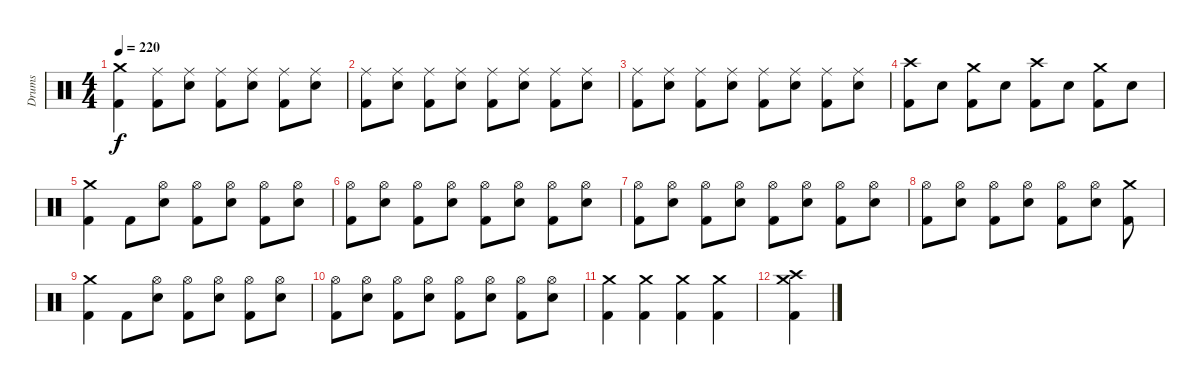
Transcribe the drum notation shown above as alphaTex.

\track ("Drums" "Drums") {instrument percussion}
\staff {score}
\articulation defaults
\ts (4 4)
\tempo 220
\clef neutral
\ks c
("Crash medium (hit)" "Kick (hit) 2").4{dy f} ("Ride (middle)" "Kick (hit) 2").8 ("Ride (middle)" "Snare (hit) 2").8 ("Ride (middle)" "Kick (hit) 2").8 ("Ride (middle)" "Snare (hit) 2").8 ("Ride (middle)" "Kick (hit) 2").8 ("Ride (middle)" "Snare (hit) 2").8 |
("Ride (middle)" "Kick (hit) 2").8 ("Ride (middle)" "Snare (hit) 2").8 ("Ride (middle)" "Kick (hit) 2").8 ("Ride (middle)" "Snare (hit) 2").8 ("Ride (middle)" "Kick (hit) 2").8 ("Ride (middle)" "Snare (hit) 2").8 ("Ride (middle)" "Kick (hit) 2").8 ("Ride (middle)" "Snare (hit) 2").8 |
("Ride (middle)" "Kick (hit) 2").8 ("Ride (middle)" "Snare (hit) 2").8 ("Ride (middle)" "Kick (hit) 2").8 ("Ride (middle)" "Snare (hit) 2").8 ("Ride (middle)" "Kick (hit) 2").8 ("Ride (middle)" "Snare (hit) 2").8 ("Ride (middle)" "Kick (hit) 2").8 ("Ride (middle)" "Snare (hit) 2").8 |
("Crash high (hit)" "Kick (hit) 2").8 "Snare (hit) 2".8 ("Crash medium (hit)" "Kick (hit) 2").8 "Snare (hit) 2".8 ("Crash high (hit)" "Kick (hit) 2").8 "Snare (hit) 2".8 ("Crash medium (hit)" "Kick (hit) 2").8 "Snare (hit) 2".8 |
("Crash medium (hit)" "Kick (hit) 2").4 "Kick (hit) 2".8 ("Hi-Hat (open)" "Snare (hit) 2").8 ("Hi-Hat (open)" "Kick (hit) 2").8 ("Hi-Hat (open)" "Snare (hit) 2").8 ("Hi-Hat (open)" "Kick (hit) 2").8 ("Hi-Hat (open)" "Snare (hit) 2").8 |
("Hi-Hat (open)" "Kick (hit) 2").8 ("Hi-Hat (open)" "Snare (hit) 2").8 ("Hi-Hat (open)" "Kick (hit) 2").8 ("Hi-Hat (open)" "Snare (hit) 2").8 ("Hi-Hat (open)" "Kick (hit) 2").8 ("Hi-Hat (open)" "Snare (hit) 2").8 ("Hi-Hat (open)" "Kick (hit) 2").8 ("Hi-Hat (open)" "Snare (hit) 2").8 |
("Hi-Hat (open)" "Kick (hit) 2").8 ("Hi-Hat (open)" "Snare (hit) 2").8 ("Hi-Hat (open)" "Kick (hit) 2").8 ("Hi-Hat (open)" "Snare (hit) 2").8 ("Hi-Hat (open)" "Kick (hit) 2").8 ("Hi-Hat (open)" "Snare (hit) 2").8 ("Hi-Hat (open)" "Kick (hit) 2").8 ("Hi-Hat (open)" "Snare (hit) 2").8 |
("Hi-Hat (open)" "Kick (hit) 2").8 ("Hi-Hat (open)" "Snare (hit) 2").8 ("Hi-Hat (open)" "Kick (hit) 2").8 ("Hi-Hat (open)" "Snare (hit) 2").8 ("Hi-Hat (open)" "Kick (hit) 2").8 ("Hi-Hat (open)" "Snare (hit) 2").8 ("Crash medium (hit)" "Kick (hit) 2").8 |
("Crash medium (hit)" "Kick (hit) 2").4 "Kick (hit) 2".8 ("Hi-Hat (open)" "Snare (hit) 2").8 ("Hi-Hat (open)" "Kick (hit) 2").8 ("Hi-Hat (open)" "Snare (hit) 2").8 ("Hi-Hat (open)" "Kick (hit) 2").8 ("Hi-Hat (open)" "Snare (hit) 2").8 |
("Hi-Hat (open)" "Kick (hit) 2").8 ("Hi-Hat (open)" "Snare (hit) 2").8 ("Hi-Hat (open)" "Kick (hit) 2").8 ("Hi-Hat (open)" "Snare (hit) 2").8 ("Hi-Hat (open)" "Kick (hit) 2").8 ("Hi-Hat (open)" "Snare (hit) 2").8 ("Hi-Hat (open)" "Kick (hit) 2").8 ("Hi-Hat (open)" "Snare (hit) 2").8 |
("Crash medium (hit)" "Kick (hit) 2").4 ("Crash medium (hit)" "Kick (hit) 2").4 ("Crash medium (hit)" "Kick (hit) 2").4 ("Crash medium (hit)" "Kick (hit) 2").4 |
("Crash medium (hit)" "Crash high (hit)" "Kick (hit) 2").4
